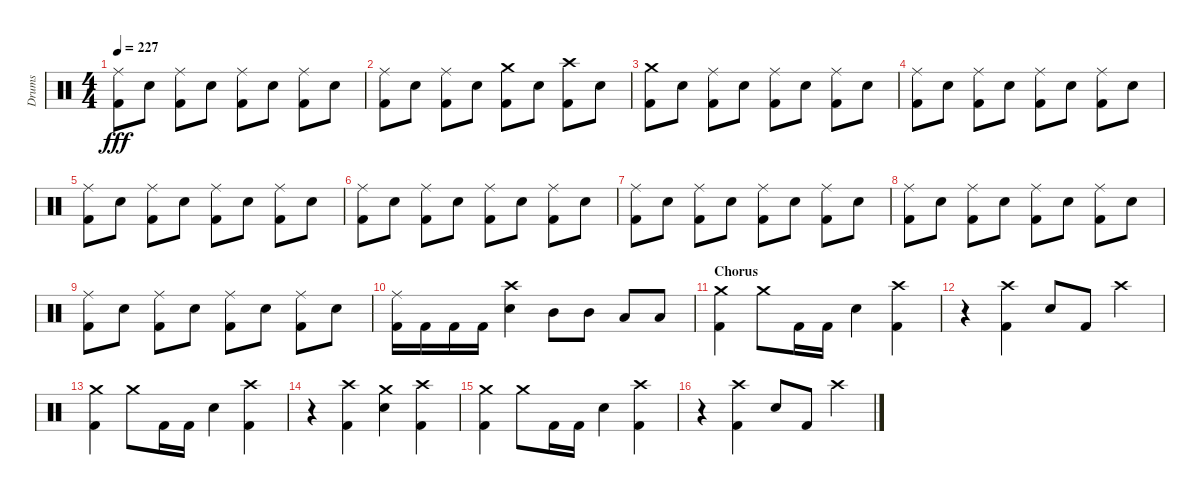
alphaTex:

\track ("Drums" "Drums") {instrument percussion}
\staff {score}
\articulation defaults
\ts (4 4)
\tempo 227
\clef neutral
\ks c
("Kick (hit) 2" "Ride (middle)").8{dy fff} "Electric Snare (hit)".8 ("Kick (hit) 2" "Ride (middle)").8 "Electric Snare (hit)".8 ("Kick (hit) 2" "Ride (middle)").8 "Electric Snare (hit)".8 ("Kick (hit) 2" "Ride (middle)").8 "Electric Snare (hit)".8 |
("Kick (hit) 2" "Ride (middle)").8 "Electric Snare (hit)".8 ("Kick (hit) 2" "Ride (middle)").8 "Electric Snare (hit)".8 ("Kick (hit) 2" "Crash medium (hit)").8 "Electric Snare (hit)".8 ("Kick (hit) 2" "Crash high (hit)").8 "Electric Snare (hit)".8 |
("Kick (hit) 2" "Crash medium (hit)").8 "Electric Snare (hit)".8 ("Kick (hit) 2" "Ride (middle)").8 "Electric Snare (hit)".8 ("Kick (hit) 2" "Ride (middle)").8 "Electric Snare (hit)".8 ("Kick (hit) 2" "Ride (middle)").8 "Electric Snare (hit)".8 |
("Kick (hit) 2" "Ride (middle)").8 "Electric Snare (hit)".8 ("Kick (hit) 2" "Ride (middle)").8 "Electric Snare (hit)".8 ("Kick (hit) 2" "Ride (middle)").8 "Electric Snare (hit)".8 ("Kick (hit) 2" "Ride (middle)").8 "Electric Snare (hit)".8 |
("Kick (hit) 2" "Ride (middle)").8 "Electric Snare (hit)".8 ("Kick (hit) 2" "Ride (middle)").8 "Electric Snare (hit)".8 ("Kick (hit) 2" "Ride (middle)").8 "Electric Snare (hit)".8 ("Kick (hit) 2" "Ride (middle)").8 "Electric Snare (hit)".8 |
("Kick (hit) 2" "Ride (middle)").8 "Electric Snare (hit)".8 ("Kick (hit) 2" "Ride (middle)").8 "Electric Snare (hit)".8 ("Kick (hit) 2" "Ride (middle)").8 "Electric Snare (hit)".8 ("Kick (hit) 2" "Ride (middle)").8 "Electric Snare (hit)".8 |
("Kick (hit) 2" "Ride (middle)").8 "Electric Snare (hit)".8 ("Kick (hit) 2" "Ride (middle)").8 "Electric Snare (hit)".8 ("Kick (hit) 2" "Ride (middle)").8 "Electric Snare (hit)".8 ("Kick (hit) 2" "Ride (middle)").8 "Electric Snare (hit)".8 |
("Kick (hit) 2" "Ride (middle)").8 "Electric Snare (hit)".8 ("Kick (hit) 2" "Ride (middle)").8 "Electric Snare (hit)".8 ("Kick (hit) 2" "Ride (middle)").8 "Electric Snare (hit)".8 ("Kick (hit) 2" "Ride (middle)").8 "Electric Snare (hit)".8 |
("Kick (hit) 2" "Ride (middle)").8 "Electric Snare (hit)".8 ("Kick (hit) 2" "Ride (middle)").8 "Electric Snare (hit)".8 ("Kick (hit) 2" "Ride (middle)").8 "Electric Snare (hit)".8 ("Kick (hit) 2" "Ride (middle)").8 "Electric Snare (hit)".8 |
("Kick (hit) 2" "Ride (middle)").16 "Kick (hit) 2".16 "Kick (hit) 2".16 "Kick (hit) 2".16 ("Electric Snare (hit)" "Crash high (hit)").4 "Mid Tom (hit)".8 "Mid Tom (hit)".8 "Low Tom (hit)".8 "Low Tom (hit)".8 |
\section ("" "Chorus")
("Kick (hit) 2" "Crash medium (hit)").4 "Crash medium (hit)".8 "Kick (hit) 2".16 "Kick (hit) 2".16 "Electric Snare (hit)".4 ("Kick (hit) 2" "Crash high (hit)").4 |
r.4 ("Kick (hit) 2" "Crash high (hit)").4 "Electric Snare (hit)".8 "Kick (hit) 2".8 "Crash high (hit)".4 |
("Kick (hit) 2" "Crash medium (hit)").4 "Crash medium (hit)".8 "Kick (hit) 2".16 "Kick (hit) 2".16 "Electric Snare (hit)".4 ("Kick (hit) 2" "Crash high (hit)").4 |
r.4 ("Kick (hit) 2" "Crash high (hit)").4 ("Electric Snare (hit)" "Crash medium (hit)").4 ("Kick (hit) 2" "Crash high (hit)").4 |
("Kick (hit) 2" "Crash medium (hit)").4 "Crash medium (hit)".8 "Kick (hit) 2".16 "Kick (hit) 2".16 "Electric Snare (hit)".4 ("Kick (hit) 2" "Crash high (hit)").4 |
r.4 ("Kick (hit) 2" "Crash high (hit)").4 "Electric Snare (hit)".8 "Kick (hit) 2".8 "Crash high (hit)".4
